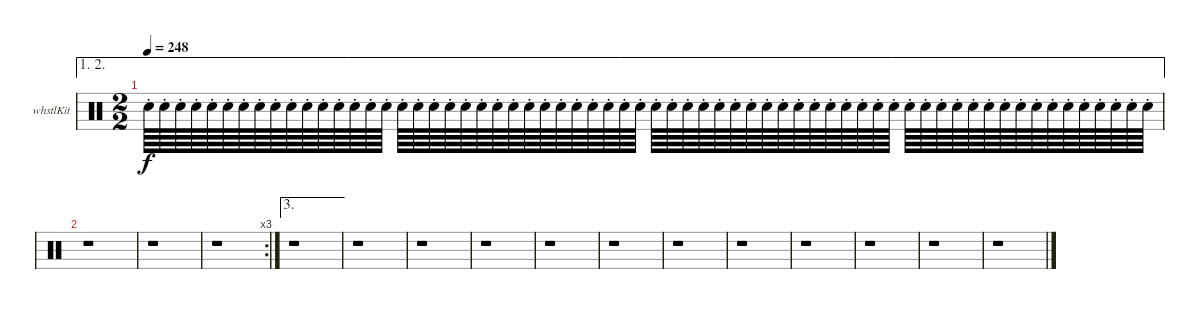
\bracketExtendMode nobrackets
\firstSystemTrackNameOrientation horizontal
\otherSystemsTrackNameOrientation horizontal
\defaultBarNumberDisplay FirstOfSystem
\track ("Whistle" "whstlKit") {instrument percussion}
\staff {score}
\articulation defaults
\ae (1 2)
\ts (2 2)
\tempo 248
\clef neutral
\ks c "Snare (hit) 2"{st}.64{dy f} "Snare (hit) 2"{st}.64 "Snare (hit) 2"{st}.64 "Snare (hit) 2"{st}.64 "Snare (hit) 2"{st}.64 "Snare (hit) 2"{st}.64 "Snare (hit) 2"{st}.64 "Snare (hit) 2"{st}.64 "Snare (hit) 2"{st}.64 "Snare (hit) 2"{st}.64 "Snare (hit) 2"{st}.64 "Snare (hit) 2"{st}.64 "Snare (hit) 2"{st}.64 "Snare (hit) 2"{st}.64 "Snare (hit) 2"{st}.64 "Snare (hit) 2"{st}.64 "Snare (hit) 2"{st}.64 "Snare (hit) 2"{st}.64 "Snare (hit) 2"{st}.64 "Snare (hit) 2"{st}.64 "Snare (hit) 2"{st}.64 "Snare (hit) 2"{st}.64 "Snare (hit) 2"{st}.64 "Snare (hit) 2"{st}.64 "Snare (hit) 2"{st}.64 "Snare (hit) 2"{st}.64 "Snare (hit) 2"{st}.64 "Snare (hit) 2"{st}.64 "Snare (hit) 2"{st}.64 "Snare (hit) 2"{st}.64 "Snare (hit) 2"{st}.64 "Snare (hit) 2"{st}.64 "Snare (hit) 2"{st}.64 "Snare (hit) 2"{st}.64 "Snare (hit) 2"{st}.64 "Snare (hit) 2"{st}.64 "Snare (hit) 2"{st}.64 "Snare (hit) 2"{st}.64 "Snare (hit) 2"{st}.64 "Snare (hit) 2"{st}.64 "Snare (hit) 2"{st}.64 "Snare (hit) 2"{st}.64 "Snare (hit) 2"{st}.64 "Snare (hit) 2"{st}.64 "Snare (hit) 2"{st}.64 "Snare (hit) 2"{st}.64 "Snare (hit) 2"{st}.64 "Snare (hit) 2"{st}.64 "Snare (hit) 2"{st}.64 "Snare (hit) 2"{st}.64 "Snare (hit) 2"{st}.64 "Snare (hit) 2"{st}.64 "Snare (hit) 2"{st}.64 "Snare (hit) 2"{st}.64 "Snare (hit) 2"{st}.64 "Snare (hit) 2"{st}.64 "Snare (hit) 2"{st}.64 "Snare (hit) 2"{st}.64 "Snare (hit) 2"{st}.64 "Snare (hit) 2"{st}.64 "Snare (hit) 2"{st}.64 "Snare (hit) 2"{st}.64 "Snare (hit) 2"{st}.64 "Snare (hit) 2"{st}.64
|
r.1 |
r.1 |
\rc 3
r.1 |
\ae 3
r.1 |
r.1 |
r.1 |
r.1 |
r.1 |
r.1 |
r.1 |
r.1 |
r.1 |
r.1 |
r.1 |
r.1
